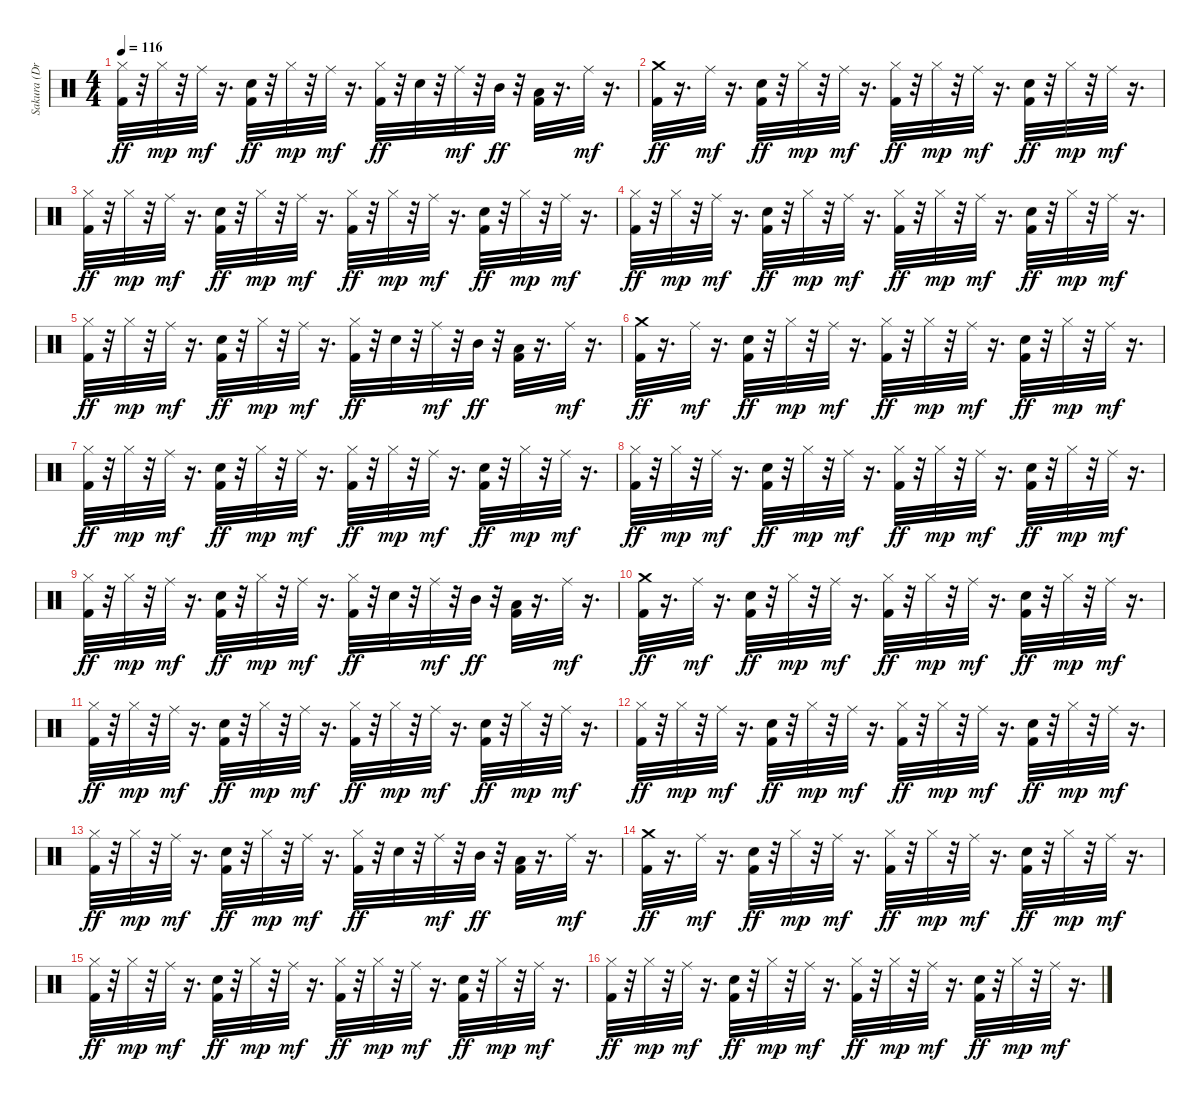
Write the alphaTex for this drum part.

\track ("Sakura (Drums)" "Sakura (Dr") {instrument percussion}
\staff {score}
\articulation defaults
\ts (4 4)
\tempo 116
\clef neutral
\ks c
("Hi-Hat (closed)" "Kick (hit) 2").32{dy ff} r.32 "Hi-Hat (closed)".32{dy mp} r.32 "Ride (middle)".32{dy mf} r.16{d} ("Electric Snare (hit)" "Kick (hit) 2").32{dy ff} r.32 "Hi-Hat (closed)".32{dy mp} r.32 "Ride (middle)".32{dy mf} r.16{d} ("Hi-Hat (closed)" "Kick (hit) 2").32{dy ff} r.32 "Electric Snare (hit)".32 r.32 "Ride (middle)".32{dy mf} r.32 "Mid Tom (hit)".32{dy ff} r.32 ("Low Tom (hit)" "Kick (hit) 2").32 r.16{d} "Ride (middle)".32{dy mf} r.16{d} |
("Crash medium (hit)" "Kick (hit) 2").32{dy ff} r.16{d} "Ride (middle)".32{dy mf} r.16{d} ("Electric Snare (hit)" "Kick (hit) 2").32{dy ff} r.32 "Hi-Hat (closed)".32{dy mp} r.32 "Ride (middle)".32{dy mf} r.16{d} ("Hi-Hat (closed)" "Kick (hit) 2").32{dy ff} r.32 "Hi-Hat (closed)".32{dy mp} r.32 "Ride (middle)".32{dy mf} r.16{d} ("Electric Snare (hit)" "Kick (hit) 2").32{dy ff} r.32 "Hi-Hat (closed)".32{dy mp} r.32 "Ride (middle)".32{dy mf} r.16{d} |
("Hi-Hat (closed)" "Kick (hit) 2").32{dy ff} r.32 "Hi-Hat (closed)".32{dy mp} r.32 "Ride (middle)".32{dy mf} r.16{d} ("Electric Snare (hit)" "Kick (hit) 2").32{dy ff} r.32 "Hi-Hat (closed)".32{dy mp} r.32 "Ride (middle)".32{dy mf} r.16{d} ("Hi-Hat (closed)" "Kick (hit) 2").32{dy ff} r.32 "Hi-Hat (closed)".32{dy mp} r.32 "Ride (middle)".32{dy mf} r.16{d} ("Electric Snare (hit)" "Kick (hit) 2").32{dy ff} r.32 "Hi-Hat (closed)".32{dy mp} r.32 "Ride (middle)".32{dy mf} r.16{d} |
("Hi-Hat (closed)" "Kick (hit) 2").32{dy ff} r.32 "Hi-Hat (closed)".32{dy mp} r.32 "Ride (middle)".32{dy mf} r.16{d} ("Electric Snare (hit)" "Kick (hit) 2").32{dy ff} r.32 "Hi-Hat (closed)".32{dy mp} r.32 "Ride (middle)".32{dy mf} r.16{d} ("Hi-Hat (closed)" "Kick (hit) 2").32{dy ff} r.32 "Hi-Hat (closed)".32{dy mp} r.32 "Ride (middle)".32{dy mf} r.16{d} ("Electric Snare (hit)" "Kick (hit) 2").32{dy ff} r.32 "Hi-Hat (closed)".32{dy mp} r.32 "Ride (middle)".32{dy mf} r.16{d} |
("Hi-Hat (closed)" "Kick (hit) 2").32{dy ff} r.32 "Hi-Hat (closed)".32{dy mp} r.32 "Ride (middle)".32{dy mf} r.16{d} ("Electric Snare (hit)" "Kick (hit) 2").32{dy ff} r.32 "Hi-Hat (closed)".32{dy mp} r.32 "Ride (middle)".32{dy mf} r.16{d} ("Hi-Hat (closed)" "Kick (hit) 2").32{dy ff} r.32 "Electric Snare (hit)".32 r.32 "Ride (middle)".32{dy mf} r.32 "Mid Tom (hit)".32{dy ff} r.32 ("Low Tom (hit)" "Kick (hit) 2").32 r.16{d} "Ride (middle)".32{dy mf} r.16{d} |
("Crash medium (hit)" "Kick (hit) 2").32{dy ff} r.16{d} "Ride (middle)".32{dy mf} r.16{d} ("Electric Snare (hit)" "Kick (hit) 2").32{dy ff} r.32 "Hi-Hat (closed)".32{dy mp} r.32 "Ride (middle)".32{dy mf} r.16{d} ("Hi-Hat (closed)" "Kick (hit) 2").32{dy ff} r.32 "Hi-Hat (closed)".32{dy mp} r.32 "Ride (middle)".32{dy mf} r.16{d} ("Electric Snare (hit)" "Kick (hit) 2").32{dy ff} r.32 "Hi-Hat (closed)".32{dy mp} r.32 "Ride (middle)".32{dy mf} r.16{d} |
("Hi-Hat (closed)" "Kick (hit) 2").32{dy ff} r.32 "Hi-Hat (closed)".32{dy mp} r.32 "Ride (middle)".32{dy mf} r.16{d} ("Electric Snare (hit)" "Kick (hit) 2").32{dy ff} r.32 "Hi-Hat (closed)".32{dy mp} r.32 "Ride (middle)".32{dy mf} r.16{d} ("Hi-Hat (closed)" "Kick (hit) 2").32{dy ff} r.32 "Hi-Hat (closed)".32{dy mp} r.32 "Ride (middle)".32{dy mf} r.16{d} ("Electric Snare (hit)" "Kick (hit) 2").32{dy ff} r.32 "Hi-Hat (closed)".32{dy mp} r.32 "Ride (middle)".32{dy mf} r.16{d} |
("Hi-Hat (closed)" "Kick (hit) 2").32{dy ff} r.32 "Hi-Hat (closed)".32{dy mp} r.32 "Ride (middle)".32{dy mf} r.16{d} ("Electric Snare (hit)" "Kick (hit) 2").32{dy ff} r.32 "Hi-Hat (closed)".32{dy mp} r.32 "Ride (middle)".32{dy mf} r.16{d} ("Hi-Hat (closed)" "Kick (hit) 2").32{dy ff} r.32 "Hi-Hat (closed)".32{dy mp} r.32 "Ride (middle)".32{dy mf} r.16{d} ("Electric Snare (hit)" "Kick (hit) 2").32{dy ff} r.32 "Hi-Hat (closed)".32{dy mp} r.32 "Ride (middle)".32{dy mf} r.16{d} |
("Hi-Hat (closed)" "Kick (hit) 2").32{dy ff} r.32 "Hi-Hat (closed)".32{dy mp} r.32 "Ride (middle)".32{dy mf} r.16{d} ("Electric Snare (hit)" "Kick (hit) 2").32{dy ff} r.32 "Hi-Hat (closed)".32{dy mp} r.32 "Ride (middle)".32{dy mf} r.16{d} ("Hi-Hat (closed)" "Kick (hit) 2").32{dy ff} r.32 "Electric Snare (hit)".32 r.32 "Ride (middle)".32{dy mf} r.32 "Mid Tom (hit)".32{dy ff} r.32 ("Low Tom (hit)" "Kick (hit) 2").32 r.16{d} "Ride (middle)".32{dy mf} r.16{d} |
("Crash medium (hit)" "Kick (hit) 2").32{dy ff} r.16{d} "Ride (middle)".32{dy mf} r.16{d} ("Electric Snare (hit)" "Kick (hit) 2").32{dy ff} r.32 "Hi-Hat (closed)".32{dy mp} r.32 "Ride (middle)".32{dy mf} r.16{d} ("Hi-Hat (closed)" "Kick (hit) 2").32{dy ff} r.32 "Hi-Hat (closed)".32{dy mp} r.32 "Ride (middle)".32{dy mf} r.16{d} ("Electric Snare (hit)" "Kick (hit) 2").32{dy ff} r.32 "Hi-Hat (closed)".32{dy mp} r.32 "Ride (middle)".32{dy mf} r.16{d} |
("Hi-Hat (closed)" "Kick (hit) 2").32{dy ff} r.32 "Hi-Hat (closed)".32{dy mp} r.32 "Ride (middle)".32{dy mf} r.16{d} ("Electric Snare (hit)" "Kick (hit) 2").32{dy ff} r.32 "Hi-Hat (closed)".32{dy mp} r.32 "Ride (middle)".32{dy mf} r.16{d} ("Hi-Hat (closed)" "Kick (hit) 2").32{dy ff} r.32 "Hi-Hat (closed)".32{dy mp} r.32 "Ride (middle)".32{dy mf} r.16{d} ("Electric Snare (hit)" "Kick (hit) 2").32{dy ff} r.32 "Hi-Hat (closed)".32{dy mp} r.32 "Ride (middle)".32{dy mf} r.16{d} |
("Hi-Hat (closed)" "Kick (hit) 2").32{dy ff} r.32 "Hi-Hat (closed)".32{dy mp} r.32 "Ride (middle)".32{dy mf} r.16{d} ("Electric Snare (hit)" "Kick (hit) 2").32{dy ff} r.32 "Hi-Hat (closed)".32{dy mp} r.32 "Ride (middle)".32{dy mf} r.16{d} ("Hi-Hat (closed)" "Kick (hit) 2").32{dy ff} r.32 "Hi-Hat (closed)".32{dy mp} r.32 "Ride (middle)".32{dy mf} r.16{d} ("Electric Snare (hit)" "Kick (hit) 2").32{dy ff} r.32 "Hi-Hat (closed)".32{dy mp} r.32 "Ride (middle)".32{dy mf} r.16{d} |
("Hi-Hat (closed)" "Kick (hit) 2").32{dy ff} r.32 "Hi-Hat (closed)".32{dy mp} r.32 "Ride (middle)".32{dy mf} r.16{d} ("Electric Snare (hit)" "Kick (hit) 2").32{dy ff} r.32 "Hi-Hat (closed)".32{dy mp} r.32 "Ride (middle)".32{dy mf} r.16{d} ("Hi-Hat (closed)" "Kick (hit) 2").32{dy ff} r.32 "Electric Snare (hit)".32 r.32 "Ride (middle)".32{dy mf} r.32 "Mid Tom (hit)".32{dy ff} r.32 ("Low Tom (hit)" "Kick (hit) 2").32 r.16{d} "Ride (middle)".32{dy mf} r.16{d} |
("Crash medium (hit)" "Kick (hit) 2").32{dy ff} r.16{d} "Ride (middle)".32{dy mf volume 12} r.16{d} ("Electric Snare (hit)" "Kick (hit) 2").32{dy ff volume 12} r.32 "Hi-Hat (closed)".32{dy mp volume 12} r.32 "Ride (middle)".32{dy mf volume 12} r.16{d} ("Hi-Hat (closed)" "Kick (hit) 2").32{dy ff volume 11} r.32 "Hi-Hat (closed)".32{dy mp volume 11} r.32 "Ride (middle)".32{dy mf volume 11} r.16{d} ("Electric Snare (hit)" "Kick (hit) 2").32{dy ff volume 10} r.32 "Hi-Hat (closed)".32{dy mp volume 10} r.32 "Ride (middle)".32{dy mf volume 10} r.16{d} |
("Hi-Hat (closed)" "Kick (hit) 2").32{dy ff volume 10} r.32 "Hi-Hat (closed)".32{dy mp volume 9} r.32 "Ride (middle)".32{dy mf volume 9} r.16{d} ("Electric Snare (hit)" "Kick (hit) 2").32{dy ff volume 9} r.32 "Hi-Hat (closed)".32{dy mp volume 9} r.32 "Ride (middle)".32{dy mf volume 8} r.16{d} ("Hi-Hat (closed)" "Kick (hit) 2").32{dy ff volume 8} r.32 "Hi-Hat (closed)".32{dy mp volume 8} r.32 "Ride (middle)".32{dy mf volume 8} r.16{d} ("Electric Snare (hit)" "Kick (hit) 2").32{dy ff volume 7} r.32 "Hi-Hat (closed)".32{dy mp volume 7} r.32 "Ride (middle)".32{dy mf volume 7} r.16{d} |
("Hi-Hat (closed)" "Kick (hit) 2").32{dy ff volume 6} r.32 "Hi-Hat (closed)".32{dy mp volume 6} r.32 "Ride (middle)".32{dy mf volume 6} r.16{d} ("Electric Snare (hit)" "Kick (hit) 2").32{dy ff volume 6} r.32 "Hi-Hat (closed)".32{dy mp volume 6} r.32 "Ride (middle)".32{dy mf volume 5} r.16{d} ("Hi-Hat (closed)" "Kick (hit) 2").32{dy ff volume 5} r.32 "Hi-Hat (closed)".32{dy mp volume 5} r.32 "Ride (middle)".32{dy mf volume 4} r.16{d} ("Electric Snare (hit)" "Kick (hit) 2").32{dy ff volume 4} r.32 "Hi-Hat (closed)".32{dy mp volume 4} r.32 "Ride (middle)".32{dy mf volume 4} r.16{d}
